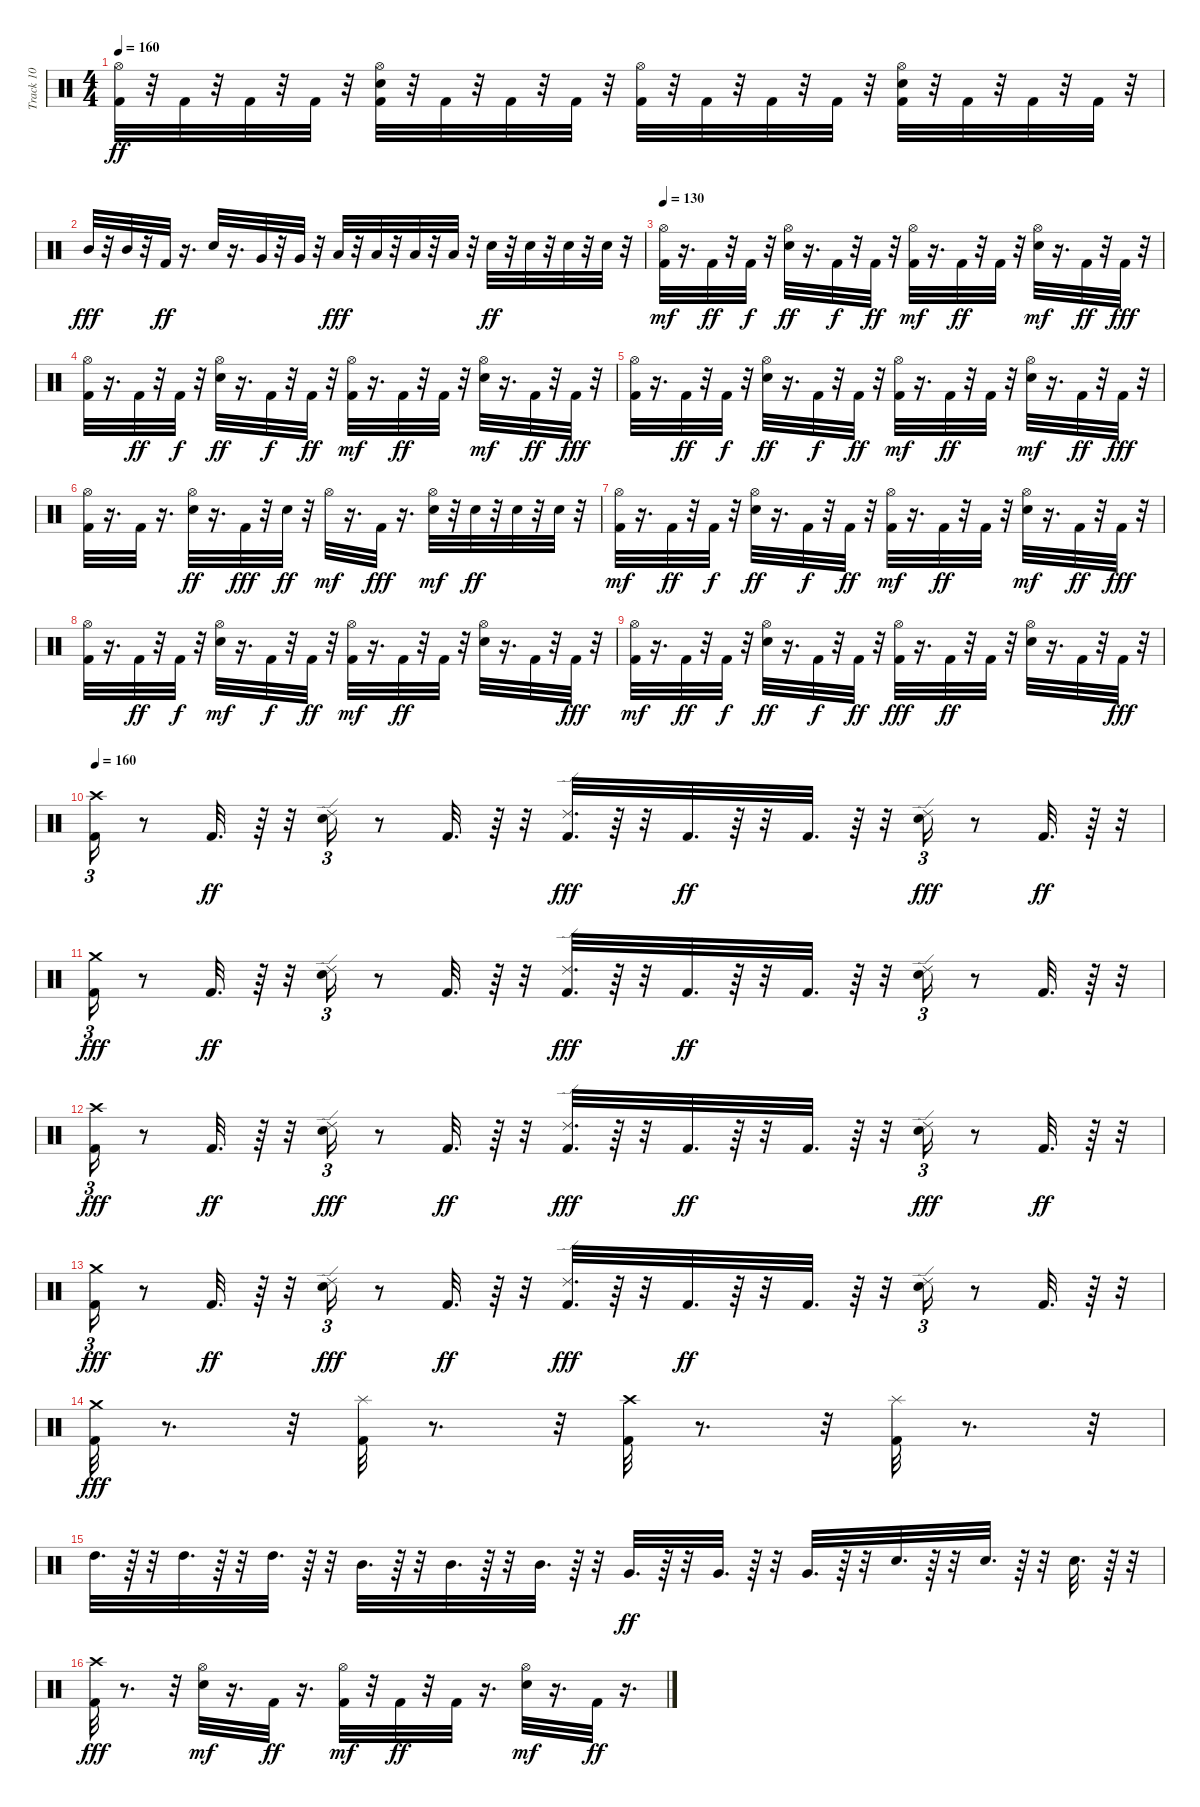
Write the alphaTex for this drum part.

\track ("Track 10" "Track 10") {instrument percussion}
\staff {score}
\articulation defaults
\ts (4 4)
\tempo 160
\clef neutral
\ks c
("Hi-Hat (open)" "Kick (hit) 2").32{dy ff} r.32 "Kick (hit) 2".32 r.32 "Kick (hit) 2".32 r.32 "Kick (hit) 2".32 r.32 ("Electric Snare (hit)" "Hi-Hat (open)" "Kick (hit) 2").32 r.32 "Kick (hit) 2".32 r.32 "Kick (hit) 2".32 r.32 "Kick (hit) 2".32 r.32 ("Hi-Hat (open)" "Kick (hit) 2").32 r.32 "Kick (hit) 2".32 r.32 "Kick (hit) 2".32 r.32 "Kick (hit) 2".32 r.32 ("Hi-Hat (open)" "Electric Snare (hit)" "Kick (hit) 2").32 r.32 "Kick (hit) 2".32 r.32 "Kick (hit) 2".32 r.32 "Kick (hit) 2".32 r.32 |
"Mid Tom (hit)".32{dy fff} r.32 "Mid Tom (hit)".32 r.32 "Kick (hit) 2".32{dy ff} r.16{d} "Electric Snare (hit)".32 r.16{d} "Very Low Tom (hit)".32 r.32 "Very Low Tom (hit)".32 r.32 "Low Tom (hit)".32{dy fff} r.32 "Low Tom (hit)".32 r.32 "Low Tom (hit)".32 r.32 "Low Tom (hit)".32 r.32 "Electric Snare (hit)".32{dy ff} r.32 "Electric Snare (hit)".32 r.32 "Electric Snare (hit)".32 r.32 "Electric Snare (hit)".32 r.32 |
\tempo 130
("Kick (hit) 2" "Hi-Hat (open)").32{dy mf} r.16{d} "Kick (hit) 2".32{dy ff} r.32 "Kick (hit) 2".32{dy f} r.32 ("Hi-Hat (open)" "Electric Snare (hit)").32{dy ff} r.16{d} "Kick (hit) 2".32{dy f} r.32 "Kick (hit) 2".32{dy ff} r.32 ("Kick (hit) 2" "Hi-Hat (open)").32{dy mf} r.16{d} "Kick (hit) 2".32{dy ff} r.32 "Kick (hit) 2".32 r.32 ("Electric Snare (hit)" "Hi-Hat (open)").32{dy mf} r.16{d} "Kick (hit) 2".32{dy ff} r.32 "Kick (hit) 2".32{dy fff} r.32 |
("Hi-Hat (open)" "Kick (hit) 2").32 r.16{d} "Kick (hit) 2".32{dy ff} r.32 "Kick (hit) 2".32{dy f} r.32 ("Hi-Hat (open)" "Electric Snare (hit)").32{dy ff} r.16{d} "Kick (hit) 2".32{dy f} r.32 "Kick (hit) 2".32{dy ff} r.32 ("Kick (hit) 2" "Hi-Hat (open)").32{dy mf} r.16{d} "Kick (hit) 2".32{dy ff} r.32 "Kick (hit) 2".32 r.32 ("Electric Snare (hit)" "Hi-Hat (open)").32{dy mf} r.16{d} "Kick (hit) 2".32{dy ff} r.32 "Kick (hit) 2".32{dy fff} r.32 |
("Hi-Hat (open)" "Kick (hit) 2").32 r.16{d} "Kick (hit) 2".32{dy ff} r.32 "Kick (hit) 2".32{dy f} r.32 ("Hi-Hat (open)" "Electric Snare (hit)").32{dy ff} r.16{d} "Kick (hit) 2".32{dy f} r.32 "Kick (hit) 2".32{dy ff} r.32 ("Kick (hit) 2" "Hi-Hat (open)").32{dy mf} r.16{d} "Kick (hit) 2".32{dy ff} r.32 "Kick (hit) 2".32 r.32 ("Electric Snare (hit)" "Hi-Hat (open)").32{dy mf} r.16{d} "Kick (hit) 2".32{dy ff} r.32 "Kick (hit) 2".32{dy fff} r.32 |
("Hi-Hat (open)" "Kick (hit) 2").32 r.16{d} "Kick (hit) 2".32 r.16{d} ("Hi-Hat (open)" "Electric Snare (hit)").32{dy ff} r.16{d} "Kick (hit) 2".32{dy fff} r.32 "Electric Snare (hit)".32{dy ff} r.32 "Hi-Hat (open)".32{dy mf} r.16{d} "Kick (hit) 2".32{dy fff} r.16{d} ("Electric Snare (hit)" "Hi-Hat (open)").32{dy mf} r.32 "Electric Snare (hit)".32{dy ff} r.32 "Electric Snare (hit)".32 r.32 "Electric Snare (hit)".32 r.32 |
("Kick (hit) 2" "Hi-Hat (open)").32{dy mf} r.16{d} "Kick (hit) 2".32{dy ff} r.32 "Kick (hit) 2".32{dy f} r.32 ("Hi-Hat (open)" "Electric Snare (hit)").32{dy ff} r.16{d} "Kick (hit) 2".32{dy f} r.32 "Kick (hit) 2".32{dy ff} r.32 ("Kick (hit) 2" "Hi-Hat (open)").32{dy mf} r.16{d} "Kick (hit) 2".32{dy ff} r.32 "Kick (hit) 2".32 r.32 ("Electric Snare (hit)" "Hi-Hat (open)").32{dy mf} r.16{d} "Kick (hit) 2".32{dy ff} r.32 "Kick (hit) 2".32{dy fff} r.32 |
("Hi-Hat (open)" "Kick (hit) 2").32 r.16{d} "Kick (hit) 2".32{dy ff} r.32 "Kick (hit) 2".32{dy f} r.32 ("Electric Snare (hit)" "Hi-Hat (open)").32{dy mf} r.16{d} "Kick (hit) 2".32{dy f} r.32 "Kick (hit) 2".32{dy ff} r.32 ("Kick (hit) 2" "Hi-Hat (open)").32{dy mf} r.16{d} "Kick (hit) 2".32{dy ff} r.32 "Kick (hit) 2".32 r.32 ("Hi-Hat (open)" "Electric Snare (hit)").32 r.16{d} "Kick (hit) 2".32 r.32 "Kick (hit) 2".32{dy fff} r.32 |
("Kick (hit) 2" "Hi-Hat (open)").32{dy mf} r.16{d} "Kick (hit) 2".32{dy ff} r.32 "Kick (hit) 2".32{dy f} r.32 ("Hi-Hat (open)" "Electric Snare (hit)").32{dy ff} r.16{d} "Kick (hit) 2".32{dy f} r.32 "Kick (hit) 2".32{dy ff} r.32 ("Hi-Hat (open)" "Kick (hit) 2").32{dy fff} r.16{d} "Kick (hit) 2".32{dy ff} r.32 "Kick (hit) 2".32 r.32 ("Hi-Hat (open)" "Electric Snare (hit)").32 r.16{d} "Kick (hit) 2".32 r.32 "Kick (hit) 2".32{dy fff} r.32 |
\tempo 160
("Kick (hit) 2" "Crash high (hit)").16{tu (3 2)} r.8 "Kick (hit) 2".32{d dy ff} r.64 r.32 ("Ride (edge) 2" "Electric Snare (hit)").16{tu (3 2)} r.8 "Kick (hit) 2".32{d} r.64 r.32 ("Kick (hit) 2" "Ride (edge) 2").32{d dy fff} r.64 r.32 "Kick (hit) 2".32{d dy ff} r.64 r.32 "Kick (hit) 2".32{d} r.64 r.32 ("Electric Snare (hit)" "Ride (edge) 2").16{tu (3 2) dy fff} r.8 "Kick (hit) 2".32{d dy ff} r.64 r.32 |
("Crash medium (hit)" "Kick (hit) 2").16{tu (3 2) dy fff} r.8 "Kick (hit) 2".32{d dy ff} r.64 r.32 ("Ride (edge) 2" "Electric Snare (hit)").16{tu (3 2)} r.8 "Kick (hit) 2".32{d} r.64 r.32 ("Ride (edge) 2" "Kick (hit) 2").32{d dy fff} r.64 r.32 "Kick (hit) 2".32{d dy ff} r.64 r.32 "Kick (hit) 2".32{d} r.64 r.32 ("Ride (edge) 2" "Electric Snare (hit)").16{tu (3 2)} r.8 "Kick (hit) 2".32{d} r.64 r.32 |
("Crash high (hit)" "Kick (hit) 2").16{tu (3 2) dy fff} r.8 "Kick (hit) 2".32{d dy ff} r.64 r.32 ("Electric Snare (hit)" "Ride (edge) 2").16{tu (3 2) dy fff} r.8 "Kick (hit) 2".32{d dy ff} r.64 r.32 ("Ride (edge) 2" "Kick (hit) 2").32{d dy fff} r.64 r.32 "Kick (hit) 2".32{d dy ff} r.64 r.32 "Kick (hit) 2".32{d} r.64 r.32 ("Electric Snare (hit)" "Ride (edge) 2").16{tu (3 2) dy fff} r.8 "Kick (hit) 2".32{d dy ff} r.64 r.32 |
("Crash medium (hit)" "Kick (hit) 2").16{tu (3 2) dy fff} r.8 "Kick (hit) 2".32{d dy ff} r.64 r.32 ("Electric Snare (hit)" "Ride (edge) 2").16{tu (3 2) dy fff} r.8 "Kick (hit) 2".32{d dy ff} r.64 r.32 ("Ride (edge) 2" "Kick (hit) 2").32{d dy fff} r.64 r.32 "Kick (hit) 2".32{d dy ff} r.64 r.32 "Kick (hit) 2".32{d} r.64 r.32 ("Ride (edge) 2" "Electric Snare (hit)").16{tu (3 2)} r.8 "Kick (hit) 2".32{d} r.64 r.32 |
("Kick (hit) 2" "Crash medium (hit)").32{dy fff} r.8{d} r.32 ("Splash (hit)" "Kick (hit) 2").32 r.8{d} r.32 ("Kick (hit) 2" "Crash high (hit)").32 r.8{d} r.32 ("Splash (hit)" "Kick (hit) 2").32 r.8{d} r.32 |
"High Tom (hit)".32{d} r.64 r.32 "High Tom (hit)".32{d} r.64 r.32 "High Tom (hit)".32{d} r.64 r.32 "Mid Tom (hit)".32{d} r.64 r.32 "Mid Tom (hit)".32{d} r.64 r.32 "Mid Tom (hit)".32{d} r.64 r.32 "Very Low Tom (hit)".32{d dy ff} r.64 r.32 "Very Low Tom (hit)".32{d} r.64 r.32 "Very Low Tom (hit)".32{d} r.64 r.32 "Electric Snare (hit)".32{d} r.64 r.32 "Electric Snare (hit)".32{d} r.64 r.32 "Electric Snare (hit)".32{d} r.64 r.32 |
("Crash high (hit)" "Kick (hit) 2").32{dy fff} r.8{d} r.32 ("Electric Snare (hit)" "Hi-Hat (open)").32{dy mf} r.16{d} "Kick (hit) 2".32{dy ff} r.16{d} ("Kick (hit) 2" "Hi-Hat (open)").32{dy mf} r.32 "Kick (hit) 2".32{dy ff} r.32 "Kick (hit) 2".32 r.16{d} ("Electric Snare (hit)" "Hi-Hat (open)").32{dy mf} r.16{d} "Kick (hit) 2".32{dy ff} r.16{d}
